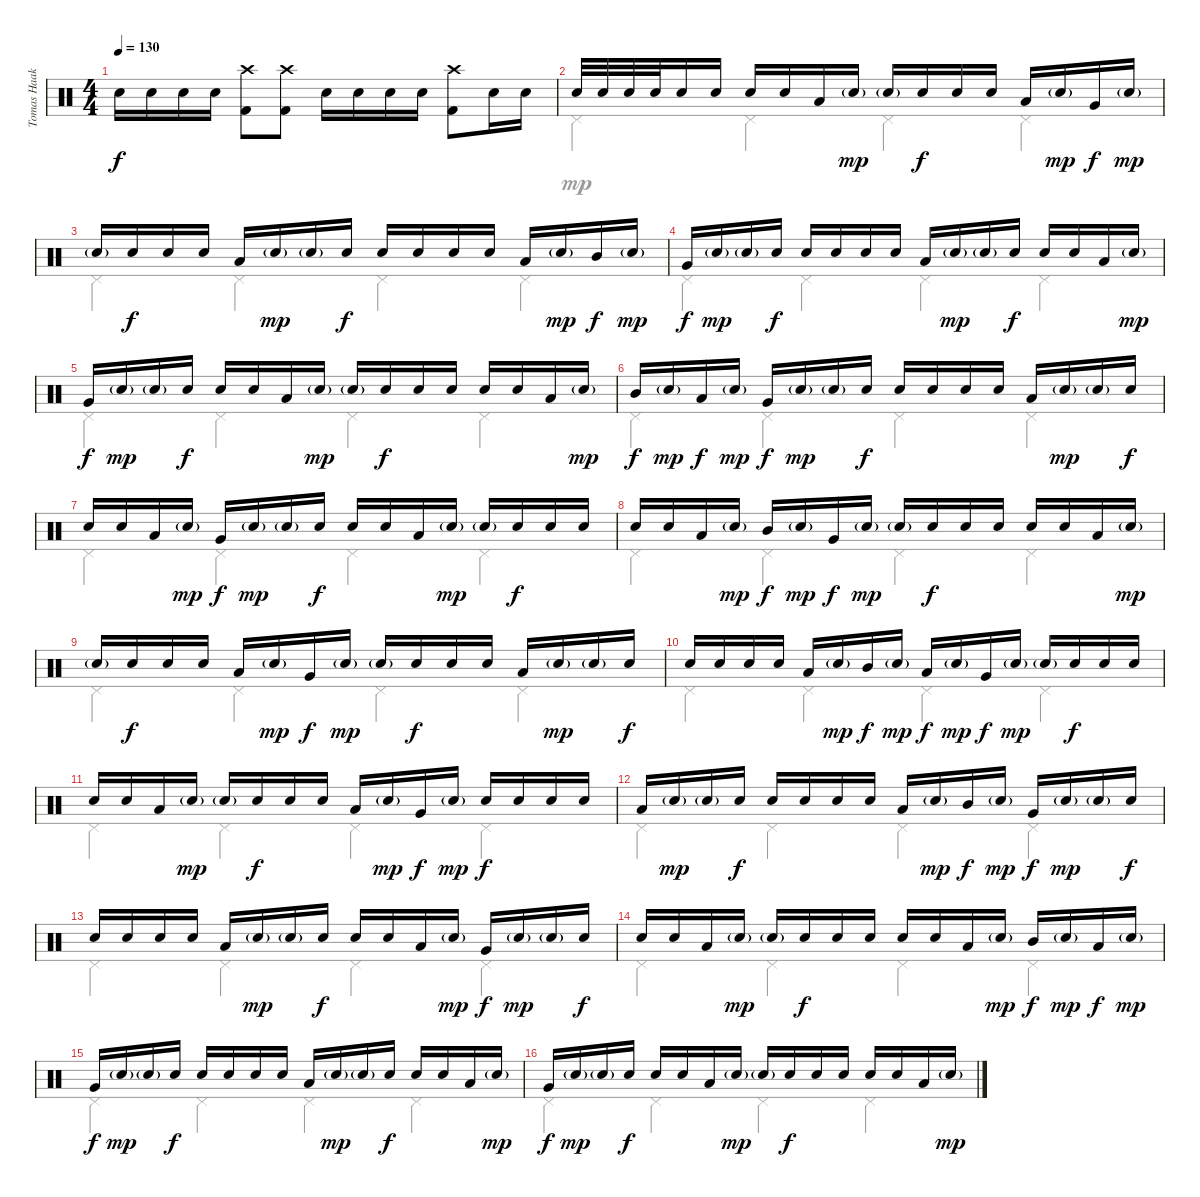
\track ("Tomas Haake" "Tomas Haak") {instrument percussion}
\staff {score}
\articulation defaults
\voice
\ts (4 4)
\tempo 130
\clef neutral
\ks c "Electric Snare (hit)".16{dy f} "Electric Snare (hit)".16 "Electric Snare (hit)".16 "Electric Snare (hit)".16
("Crash high (hit)" "Kick (hit) 2").8 ("Crash high (hit)" "Kick (hit) 2").8 "Electric Snare (hit)".16 "Electric Snare (hit)".16 "Electric Snare (hit)".16 "Electric Snare (hit)".16 ("Crash high (hit)" "Kick (hit) 2").8 "Electric Snare (hit)".16 "Electric Snare (hit)".16 |
"Electric Snare (hit)".32 "Electric Snare (hit)".32 "Electric Snare (hit)".32 "Electric Snare (hit)".32 "Electric Snare (hit)".16 "Electric Snare (hit)".16 "Electric Snare (hit)".16 "Electric Snare (hit)".16 "Low Tom (hit)".16 "Electric Snare (hit)"{g}.16{dy mp} "Electric Snare (hit)"{g}.16 "Electric Snare (hit)".16{dy f} "Electric Snare (hit)".16 "Electric Snare (hit)".16 "Low Tom (hit)".16 "Electric Snare (hit)"{g}.16{dy mp} "Very Low Tom (hit)".16{dy f} "Electric Snare (hit)"{g}.16{dy mp} |
"Electric Snare (hit)"{g}.16 "Electric Snare (hit)".16{dy f} "Electric Snare (hit)".16 "Electric Snare (hit)".16 "Low Tom (hit)".16 "Electric Snare (hit)"{g}.16{dy mp} "Electric Snare (hit)"{g}.16 "Electric Snare (hit)".16{dy f} "Electric Snare (hit)".16 "Electric Snare (hit)".16 "Electric Snare (hit)".16 "Electric Snare (hit)".16 "Low Tom (hit)".16 "Electric Snare (hit)"{g}.16{dy mp} "Mid Tom (hit)".16{dy f} "Electric Snare (hit)"{g}.16{dy mp} |
"Very Low Tom (hit)".16{dy f} "Electric Snare (hit)"{g}.16{dy mp} "Electric Snare (hit)"{g}.16 "Electric Snare (hit)".16{dy f} "Electric Snare (hit)".16 "Electric Snare (hit)".16 "Electric Snare (hit)".16 "Electric Snare (hit)".16 "Low Tom (hit)".16 "Electric Snare (hit)"{g}.16{dy mp} "Electric Snare (hit)"{g}.16 "Electric Snare (hit)".16{dy f} "Electric Snare (hit)".16 "Electric Snare (hit)".16 "Low Tom (hit)".16 "Electric Snare (hit)"{g}.16{dy mp} |
"Very Low Tom (hit)".16{dy f} "Electric Snare (hit)"{g}.16{dy mp} "Electric Snare (hit)"{g}.16 "Electric Snare (hit)".16{dy f} "Electric Snare (hit)".16 "Electric Snare (hit)".16 "Low Tom (hit)".16 "Electric Snare (hit)"{g}.16{dy mp} "Electric Snare (hit)"{g}.16 "Electric Snare (hit)".16{dy f} "Electric Snare (hit)".16 "Electric Snare (hit)".16 "Electric Snare (hit)".16 "Electric Snare (hit)".16 "Low Tom (hit)".16 "Electric Snare (hit)"{g}.16{dy mp} |
"Mid Tom (hit)".16{dy f} "Electric Snare (hit)"{g}.16{dy mp} "Low Floor Tom (hit)".16{dy f} "Electric Snare (hit)"{g}.16{dy mp} "Very Low Tom (hit)".16{dy f} "Electric Snare (hit)"{g}.16{dy mp} "Electric Snare (hit)"{g}.16 "Electric Snare (hit)".16{dy f} "Electric Snare (hit)".16 "Electric Snare (hit)".16 "Electric Snare (hit)".16 "Electric Snare (hit)".16 "Low Tom (hit)".16 "Electric Snare (hit)"{g}.16{dy mp} "Electric Snare (hit)"{g}.16 "Electric Snare (hit)".16{dy f} |
"Electric Snare (hit)".16 "Electric Snare (hit)".16 "Low Tom (hit)".16 "Electric Snare (hit)"{g}.16{dy mp} "Very Low Tom (hit)".16{dy f} "Electric Snare (hit)"{g}.16{dy mp} "Electric Snare (hit)"{g}.16 "Electric Snare (hit)".16{dy f} "Electric Snare (hit)".16 "Electric Snare (hit)".16 "Low Tom (hit)".16 "Electric Snare (hit)"{g}.16{dy mp} "Electric Snare (hit)"{g}.16 "Electric Snare (hit)".16{dy f} "Electric Snare (hit)".16 "Electric Snare (hit)".16 |
"Electric Snare (hit)".16 "Electric Snare (hit)".16 "Low Tom (hit)".16 "Electric Snare (hit)"{g}.16{dy mp} "Mid Tom (hit)".16{dy f} "Electric Snare (hit)"{g}.16{dy mp} "Very Low Tom (hit)".16{dy f} "Electric Snare (hit)"{g}.16{dy mp} "Electric Snare (hit)"{g}.16 "Electric Snare (hit)".16{dy f} "Electric Snare (hit)".16 "Electric Snare (hit)".16 "Electric Snare (hit)".16 "Electric Snare (hit)".16 "Low Tom (hit)".16 "Electric Snare (hit)"{g}.16{dy mp} |
"Electric Snare (hit)"{g}.16 "Electric Snare (hit)".16{dy f} "Electric Snare (hit)".16 "Electric Snare (hit)".16 "Low Tom (hit)".16 "Electric Snare (hit)"{g}.16{dy mp} "Very Low Tom (hit)".16{dy f} "Electric Snare (hit)"{g}.16{dy mp} "Electric Snare (hit)"{g}.16 "Electric Snare (hit)".16{dy f} "Electric Snare (hit)".16 "Electric Snare (hit)".16 "Low Tom (hit)".16 "Electric Snare (hit)"{g}.16{dy mp} "Electric Snare (hit)"{g}.16 "Electric Snare (hit)".16{dy f} |
"Electric Snare (hit)".16 "Electric Snare (hit)".16 "Electric Snare (hit)".16 "Electric Snare (hit)".16 "Low Tom (hit)".16 "Electric Snare (hit)"{g}.16{dy mp} "Mid Tom (hit)".16{dy f} "Electric Snare (hit)"{g}.16{dy mp} "Low Floor Tom (hit)".16{dy f} "Electric Snare (hit)"{g}.16{dy mp} "Very Low Tom (hit)".16{dy f} "Electric Snare (hit)"{g}.16{dy mp} "Electric Snare (hit)"{g}.16 "Electric Snare (hit)".16{dy f} "Electric Snare (hit)".16 "Electric Snare (hit)".16 |
"Electric Snare (hit)".16 "Electric Snare (hit)".16 "Low Tom (hit)".16 "Electric Snare (hit)"{g}.16{dy mp} "Electric Snare (hit)"{g}.16 "Electric Snare (hit)".16{dy f} "Electric Snare (hit)".16 "Electric Snare (hit)".16 "Low Tom (hit)".16 "Electric Snare (hit)"{g}.16{dy mp} "Very Low Tom (hit)".16{dy f} "Electric Snare (hit)"{g}.16{dy mp} "Electric Snare (hit)".16{dy f} "Electric Snare (hit)".16 "Electric Snare (hit)".16 "Electric Snare (hit)".16 |
"Low Tom (hit)".16 "Electric Snare (hit)"{g}.16{dy mp} "Electric Snare (hit)"{g}.16 "Electric Snare (hit)".16{dy f} "Electric Snare (hit)".16 "Electric Snare (hit)".16 "Electric Snare (hit)".16 "Electric Snare (hit)".16 "Low Tom (hit)".16 "Electric Snare (hit)"{g}.16{dy mp} "Mid Tom (hit)".16{dy f} "Electric Snare (hit)"{g}.16{dy mp} "Very Low Tom (hit)".16{dy f} "Electric Snare (hit)"{g}.16{dy mp} "Electric Snare (hit)"{g}.16 "Electric Snare (hit)".16{dy f} |
"Electric Snare (hit)".16 "Electric Snare (hit)".16 "Electric Snare (hit)".16 "Electric Snare (hit)".16 "Low Tom (hit)".16 "Electric Snare (hit)"{g}.16{dy mp} "Electric Snare (hit)"{g}.16 "Electric Snare (hit)".16{dy f} "Electric Snare (hit)".16 "Electric Snare (hit)".16 "Low Tom (hit)".16 "Electric Snare (hit)"{g}.16{dy mp} "Very Low Tom (hit)".16{dy f} "Electric Snare (hit)"{g}.16{dy mp} "Electric Snare (hit)"{g}.16 "Electric Snare (hit)".16{dy f} |
"Electric Snare (hit)".16 "Electric Snare (hit)".16 "Low Tom (hit)".16 "Electric Snare (hit)"{g}.16{dy mp} "Electric Snare (hit)"{g}.16 "Electric Snare (hit)".16{dy f} "Electric Snare (hit)".16 "Electric Snare (hit)".16 "Electric Snare (hit)".16 "Electric Snare (hit)".16 "Low Tom (hit)".16 "Electric Snare (hit)"{g}.16{dy mp} "Mid Tom (hit)".16{dy f} "Electric Snare (hit)"{g}.16{dy mp} "Low Floor Tom (hit)".16{dy f} "Electric Snare (hit)"{g}.16{dy mp} |
"Very Low Tom (hit)".16{dy f} "Electric Snare (hit)"{g}.16{dy mp} "Electric Snare (hit)"{g}.16 "Electric Snare (hit)".16{dy f} "Electric Snare (hit)".16 "Electric Snare (hit)".16 "Electric Snare (hit)".16 "Electric Snare (hit)".16 "Low Tom (hit)".16 "Electric Snare (hit)"{g}.16{dy mp} "Electric Snare (hit)"{g}.16 "Electric Snare (hit)".16{dy f} "Electric Snare (hit)".16 "Electric Snare (hit)".16 "Low Tom (hit)".16 "Electric Snare (hit)"{g}.16{dy mp} |
"Very Low Tom (hit)".16{dy f} "Electric Snare (hit)"{g}.16{dy mp} "Electric Snare (hit)"{g}.16 "Electric Snare (hit)".16{dy f} "Electric Snare (hit)".16 "Electric Snare (hit)".16 "Low Tom (hit)".16 "Electric Snare (hit)"{g}.16{dy mp} "Electric Snare (hit)"{g}.16 "Electric Snare (hit)".16{dy f} "Electric Snare (hit)".16 "Electric Snare (hit)".16 "Electric Snare (hit)".16 "Electric Snare (hit)".16 "Low Tom (hit)".16 "Electric Snare (hit)"{g}.16{dy mp}
\voice
\clef neutral
\ottava regular
\simile none
\ks c
|
"Pedal Hi-Hat (hit)".4 "Pedal Hi-Hat (hit)".4 "Pedal Hi-Hat (hit)".4 "Pedal Hi-Hat (hit)".4 |
"Pedal Hi-Hat (hit)".4 "Pedal Hi-Hat (hit)".4 "Pedal Hi-Hat (hit)".4 "Pedal Hi-Hat (hit)".4 |
"Pedal Hi-Hat (hit)".4 "Pedal Hi-Hat (hit)".4 "Pedal Hi-Hat (hit)".4 "Pedal Hi-Hat (hit)".4 |
"Pedal Hi-Hat (hit)".4 "Pedal Hi-Hat (hit)".4 "Pedal Hi-Hat (hit)".4 "Pedal Hi-Hat (hit)".4 |
"Pedal Hi-Hat (hit)".4 "Pedal Hi-Hat (hit)".4 "Pedal Hi-Hat (hit)".4 "Pedal Hi-Hat (hit)".4 |
"Pedal Hi-Hat (hit)".4 "Pedal Hi-Hat (hit)".4 "Pedal Hi-Hat (hit)".4 "Pedal Hi-Hat (hit)".4 |
"Pedal Hi-Hat (hit)".4 "Pedal Hi-Hat (hit)".4 "Pedal Hi-Hat (hit)".4 "Pedal Hi-Hat (hit)".4 |
"Pedal Hi-Hat (hit)".4 "Pedal Hi-Hat (hit)".4 "Pedal Hi-Hat (hit)".4 "Pedal Hi-Hat (hit)".4 |
"Pedal Hi-Hat (hit)".4 "Pedal Hi-Hat (hit)".4 "Pedal Hi-Hat (hit)".4 "Pedal Hi-Hat (hit)".4 |
"Pedal Hi-Hat (hit)".4 "Pedal Hi-Hat (hit)".4 "Pedal Hi-Hat (hit)".4 "Pedal Hi-Hat (hit)".4 |
"Pedal Hi-Hat (hit)".4 "Pedal Hi-Hat (hit)".4 "Pedal Hi-Hat (hit)".4 "Pedal Hi-Hat (hit)".4 |
"Pedal Hi-Hat (hit)".4 "Pedal Hi-Hat (hit)".4 "Pedal Hi-Hat (hit)".4 "Pedal Hi-Hat (hit)".4 |
"Pedal Hi-Hat (hit)".4 "Pedal Hi-Hat (hit)".4 "Pedal Hi-Hat (hit)".4 "Pedal Hi-Hat (hit)".4 |
"Pedal Hi-Hat (hit)".4 "Pedal Hi-Hat (hit)".4 "Pedal Hi-Hat (hit)".4 "Pedal Hi-Hat (hit)".4 |
"Pedal Hi-Hat (hit)".4 "Pedal Hi-Hat (hit)".4 "Pedal Hi-Hat (hit)".4 "Pedal Hi-Hat (hit)".4
